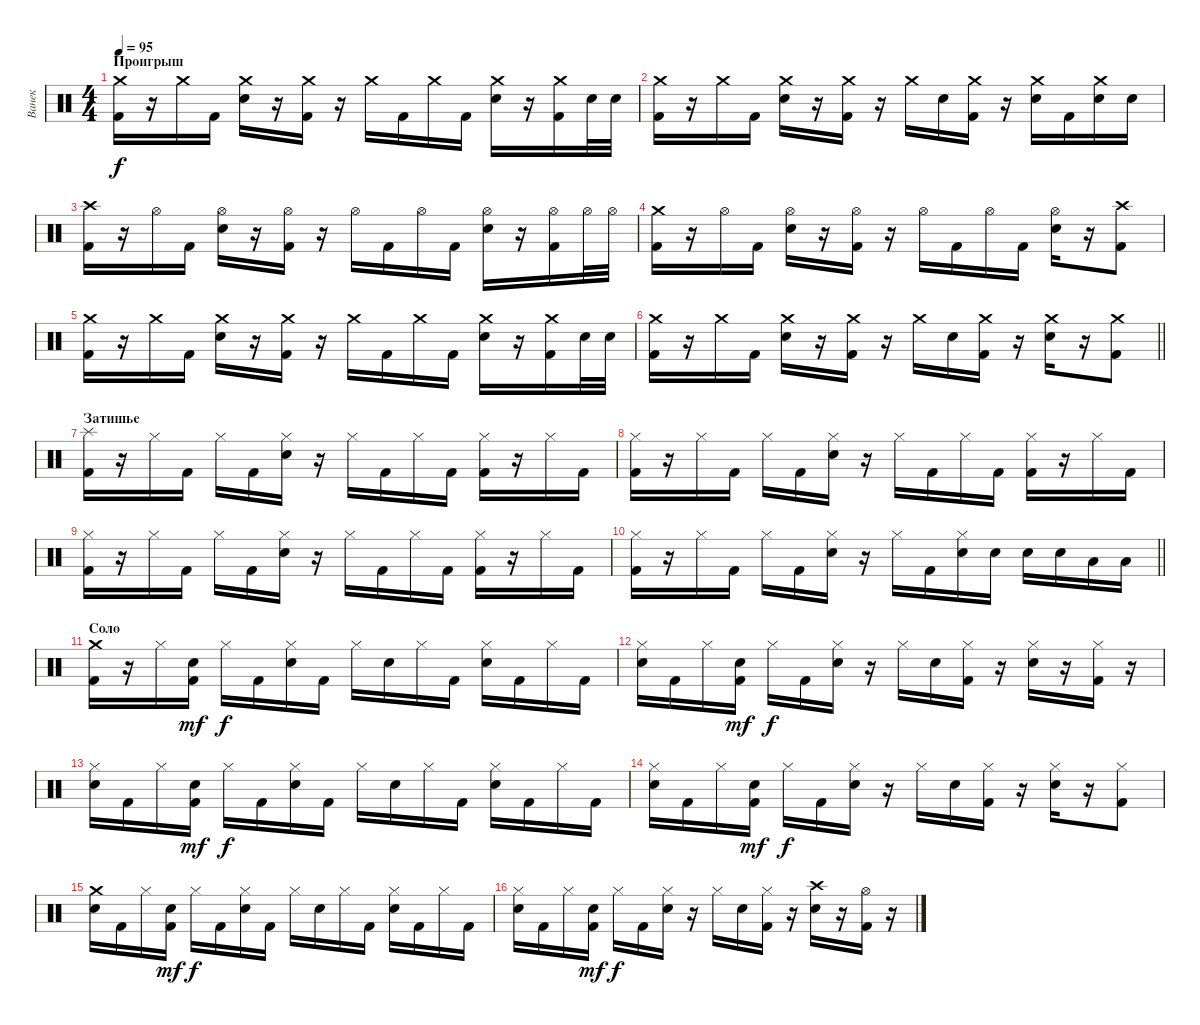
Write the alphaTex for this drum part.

\track ("Ванек" "Ванек") {instrument percussion}
\staff {score}
\articulation defaults
\ts (4 4)
\section ("" "Проигрыш")
\tempo 95
\clef neutral
\ks c
("Crash medium (hit)" "Kick (hit) 2").16{dy f} r.16 "Crash medium (hit)".16 "Kick (hit) 2".16 ("Crash medium (hit)" "Snare (hit) 2").16 r.16 ("Crash medium (hit)" "Kick (hit) 2").16 r.16 "Crash medium (hit)".16 "Kick (hit) 2".16 "Crash medium (hit)".16 "Kick (hit) 2".16 ("Crash medium (hit)" "Snare (hit) 2").16 r.16 ("Crash medium (hit)" "Kick (hit) 2").16 "Snare (hit) 2".32 "Snare (hit) 2".32 |
("Crash medium (hit)" "Kick (hit) 2").16 r.16 "Crash medium (hit)".16 "Kick (hit) 2".16 ("Crash medium (hit)" "Snare (hit) 2").16 r.16 ("Crash medium (hit)" "Kick (hit) 2").16 r.16 "Crash medium (hit)".16 "Snare (hit) 2".16 ("Crash medium (hit)" "Kick (hit) 2").16 r.16 ("Crash medium (hit)" "Snare (hit) 2").16 "Kick (hit) 2".16 ("Crash medium (hit)" "Snare (hit) 2").16 "Snare (hit) 2".16 |
("Crash high (hit)" "Kick (hit) 2").16 r.16 "Hi-Hat (open)".16 "Kick (hit) 2".16 ("Hi-Hat (open)" "Snare (hit) 2").16 r.16 ("Hi-Hat (open)" "Kick (hit) 2").16 r.16 "Hi-Hat (open)".16 "Kick (hit) 2".16 "Hi-Hat (open)".16 "Kick (hit) 2".16 ("Hi-Hat (open)" "Snare (hit) 2").16 r.16 ("Hi-Hat (open)" "Kick (hit) 2").16 "Hi-Hat (open)".32 "Hi-Hat (open)".32 |
("Crash medium (hit)" "Kick (hit) 2").16 r.16 "Hi-Hat (open)".16 "Kick (hit) 2".16 ("Hi-Hat (open)" "Snare (hit) 2").16 r.16 ("Hi-Hat (open)" "Kick (hit) 2").16 r.16 "Hi-Hat (open)".16 "Kick (hit) 2".16 "Hi-Hat (open)".16 "Kick (hit) 2".16 ("Hi-Hat (open)" "Snare (hit) 2").16 r.16 ("Crash high (hit)" "Kick (hit) 2").8 |
("Crash medium (hit)" "Kick (hit) 2").16 r.16 "Crash medium (hit)".16 "Kick (hit) 2".16 ("Crash medium (hit)" "Snare (hit) 2").16 r.16 ("Crash medium (hit)" "Kick (hit) 2").16 r.16 "Crash medium (hit)".16 "Kick (hit) 2".16 "Crash medium (hit)".16 "Kick (hit) 2".16 ("Crash medium (hit)" "Snare (hit) 2").16 r.16 ("Crash medium (hit)" "Kick (hit) 2").16 "Snare (hit) 2".32 "Snare (hit) 2".32 |
\barLineRight lightlight
("Crash medium (hit)" "Kick (hit) 2").16 r.16 "Crash medium (hit)".16 "Kick (hit) 2".16 ("Crash medium (hit)" "Snare (hit) 2").16 r.16 ("Crash medium (hit)" "Kick (hit) 2").16 r.16 "Crash medium (hit)".16 "Snare (hit) 2".16 ("Crash medium (hit)" "Kick (hit) 2").16 r.16 ("Crash medium (hit)" "Snare (hit) 2").16 r.16 ("Crash medium (hit)" "Kick (hit) 2").8 |
\section ("" "Затишье")
("Splash (hit)" "Kick (hit) 2").16 r.16 "Hi-Hat (closed)".16 "Kick (hit) 2".16 "Hi-Hat (closed)".16 "Kick (hit) 2".16 ("Hi-Hat (closed)" "Snare (hit) 2").16 r.16 "Hi-Hat (closed)".16 "Kick (hit) 2".16 "Hi-Hat (closed)".16 "Kick (hit) 2".16 ("Hi-Hat (closed)" "Kick (hit) 2").16 r.16 "Hi-Hat (closed)".16 "Kick (hit) 2".16 |
("Hi-Hat (closed)" "Kick (hit) 2").16 r.16 "Hi-Hat (closed)".16 "Kick (hit) 2".16 "Hi-Hat (closed)".16 "Kick (hit) 2".16 ("Hi-Hat (closed)" "Snare (hit) 2").16 r.16 "Hi-Hat (closed)".16 "Kick (hit) 2".16 "Hi-Hat (closed)".16 "Kick (hit) 2".16 ("Hi-Hat (closed)" "Kick (hit) 2").16 r.16 "Hi-Hat (closed)".16 "Kick (hit) 2".16 |
("Hi-Hat (closed)" "Kick (hit) 2").16 r.16 "Hi-Hat (closed)".16 "Kick (hit) 2".16 "Hi-Hat (closed)".16 "Kick (hit) 2".16 ("Hi-Hat (closed)" "Snare (hit) 2").16 r.16 "Hi-Hat (closed)".16 "Kick (hit) 2".16 "Hi-Hat (closed)".16 "Kick (hit) 2".16 ("Hi-Hat (closed)" "Kick (hit) 2").16 r.16 "Hi-Hat (closed)".16 "Kick (hit) 2".16 |
\barLineRight lightlight
("Hi-Hat (closed)" "Kick (hit) 2").16 r.16 "Hi-Hat (closed)".16 "Kick (hit) 2".16 "Hi-Hat (closed)".16 "Kick (hit) 2".16 ("Hi-Hat (closed)" "Snare (hit) 2").16 r.16 "Hi-Hat (closed)".16 "Kick (hit) 2".16 ("Hi-Hat (closed)" "Snare (hit) 2").16 "Snare (hit) 2".16 "Snare (hit) 2".16 "Snare (hit) 2".16 "Low Floor Tom (hit)".16 "Low Floor Tom (hit)".16 |
\section ("" "Соло")
("Crash medium (hit)" "Kick (hit) 2").16 r.16 "Hi-Hat (closed)".16 ("Snare (hit) 2" "Kick (hit) 2").16{dy mf} "Hi-Hat (closed)".16{dy f} "Kick (hit) 2".16 ("Hi-Hat (closed)" "Snare (hit) 2").16 "Kick (hit) 2".16 "Hi-Hat (closed)".16 "Snare (hit) 2".16 "Hi-Hat (closed)".16 "Kick (hit) 2".16 ("Hi-Hat (closed)" "Snare (hit) 2").16 "Kick (hit) 2".16 "Hi-Hat (closed)".16 "Kick (hit) 2".16 |
("Hi-Hat (closed)" "Snare (hit) 2").16 "Kick (hit) 2".16 "Hi-Hat (closed)".16 ("Snare (hit) 2" "Kick (hit) 2").16{dy mf} "Hi-Hat (closed)".16{dy f} "Kick (hit) 2".16 ("Hi-Hat (closed)" "Snare (hit) 2").16 r.16 "Hi-Hat (closed)".16 "Snare (hit) 2".16 ("Hi-Hat (closed)" "Kick (hit) 2").16 r.16 ("Hi-Hat (closed)" "Snare (hit) 2").16 r.16 ("Hi-Hat (closed)" "Kick (hit) 2").16 r.16 |
("Hi-Hat (closed)" "Snare (hit) 2").16 "Kick (hit) 2".16 "Hi-Hat (closed)".16 ("Snare (hit) 2" "Kick (hit) 2").16{dy mf} "Hi-Hat (closed)".16{dy f} "Kick (hit) 2".16 ("Hi-Hat (closed)" "Snare (hit) 2").16 "Kick (hit) 2".16 "Hi-Hat (closed)".16 "Snare (hit) 2".16 "Hi-Hat (closed)".16 "Kick (hit) 2".16 ("Hi-Hat (closed)" "Snare (hit) 2").16 "Kick (hit) 2".16 "Hi-Hat (closed)".16 "Kick (hit) 2".16 |
("Hi-Hat (closed)" "Snare (hit) 2").16 "Kick (hit) 2".16 "Hi-Hat (closed)".16 ("Snare (hit) 2" "Kick (hit) 2").16{dy mf} "Hi-Hat (closed)".16{dy f} "Kick (hit) 2".16 ("Hi-Hat (closed)" "Snare (hit) 2").16 r.16 "Hi-Hat (closed)".16 "Snare (hit) 2".16 ("Hi-Hat (closed)" "Kick (hit) 2").16 r.16 ("Hi-Hat (closed)" "Snare (hit) 2").16 r.16 ("Hi-Hat (closed)" "Kick (hit) 2").8 |
("Crash medium (hit)" "Snare (hit) 2").16 "Kick (hit) 2".16 "Hi-Hat (closed)".16 ("Snare (hit) 2" "Kick (hit) 2").16{dy mf} "Hi-Hat (closed)".16{dy f} "Kick (hit) 2".16 ("Hi-Hat (closed)" "Snare (hit) 2").16 "Kick (hit) 2".16 "Hi-Hat (closed)".16 "Snare (hit) 2".16 "Hi-Hat (closed)".16 "Kick (hit) 2".16 ("Hi-Hat (closed)" "Snare (hit) 2").16 "Kick (hit) 2".16 "Hi-Hat (closed)".16 "Kick (hit) 2".16 |
("Hi-Hat (closed)" "Snare (hit) 2").16 "Kick (hit) 2".16 "Hi-Hat (closed)".16 ("Snare (hit) 2" "Kick (hit) 2").16{dy mf} "Hi-Hat (closed)".16{dy f} "Kick (hit) 2".16 ("Hi-Hat (closed)" "Snare (hit) 2").16 r.16 "Hi-Hat (closed)".16 "Snare (hit) 2".16 ("Hi-Hat (closed)" "Kick (hit) 2").16 r.16 ("Crash high (hit)" "Snare (hit) 2").16 r.16 ("Hi-Hat (open)" "Kick (hit) 2").16 r.16
